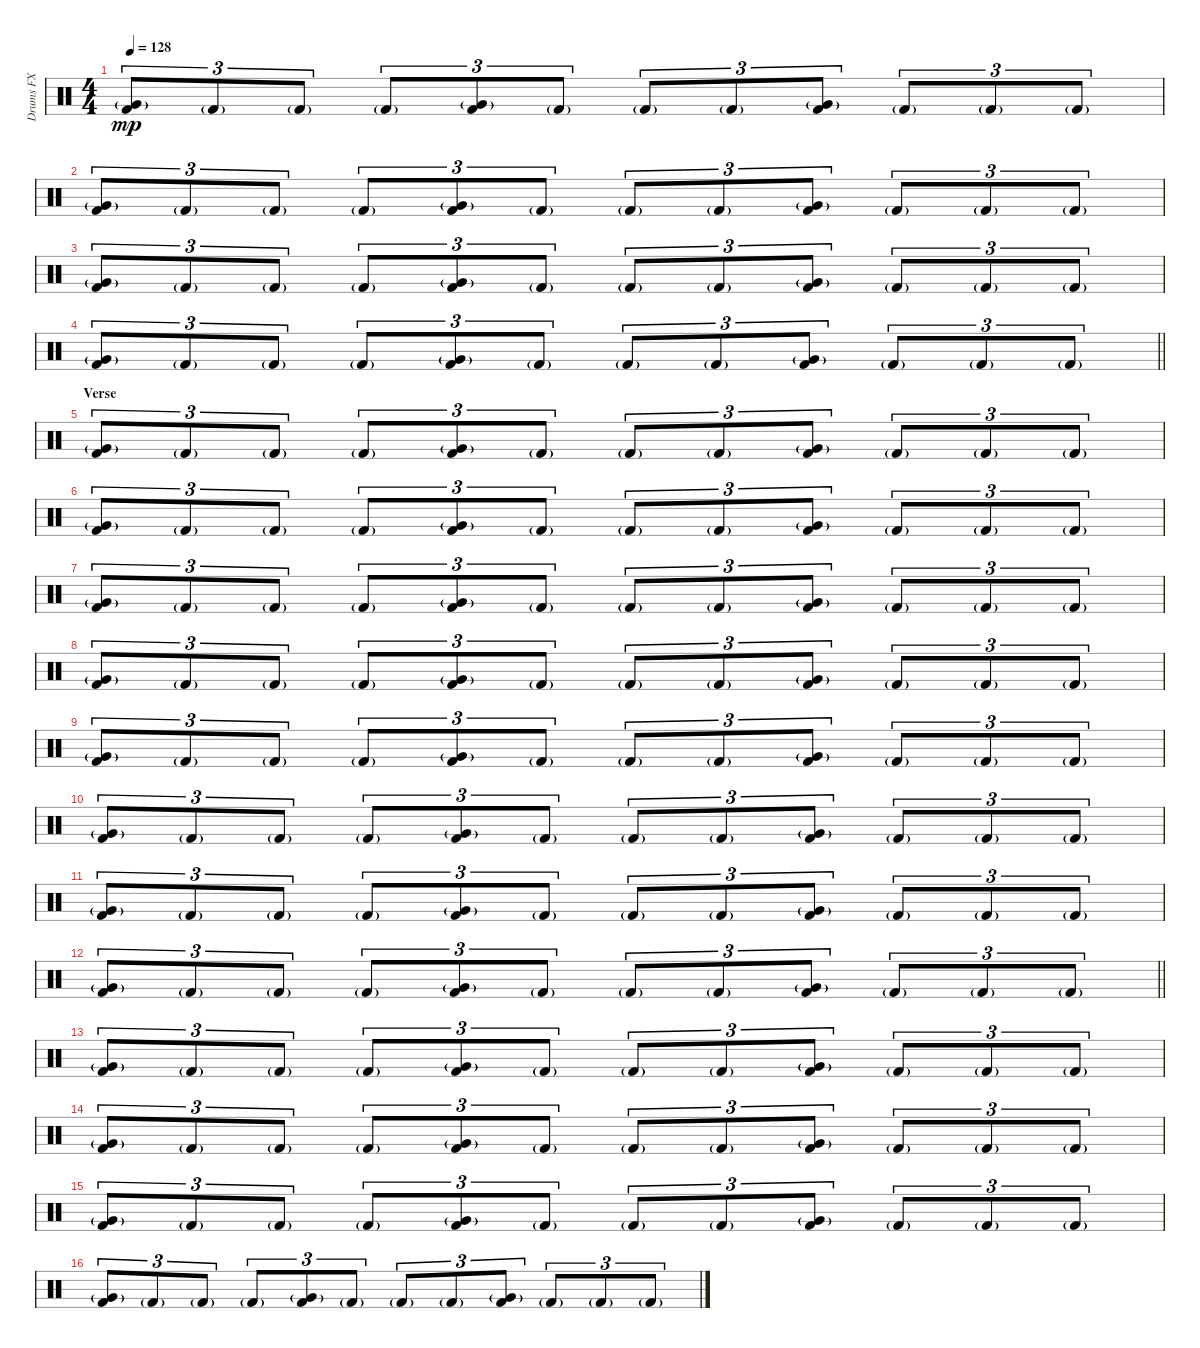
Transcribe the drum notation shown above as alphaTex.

\track ("Drums FX" "Drums FX") {instrument percussion}
\staff {score}
\articulation defaults
\ts (4 4)
\tempo 128
\clef neutral
\ks c
("Very Low Tom (hit)"{g} "Kick (hit) 2").8{tu (3 2) dy mp} "Kick (hit) 2"{g}.8{tu (3 2)} "Kick (hit) 2"{g}.8{tu (3 2)} "Kick (hit) 2"{g}.8{tu (3 2)} ("Very Low Tom (hit)"{g} "Kick (hit) 2").8{tu (3 2)} "Kick (hit) 2"{g}.8{tu (3 2)} "Kick (hit) 2"{g}.8{tu (3 2)} "Kick (hit) 2"{g}.8{tu (3 2)} ("Very Low Tom (hit)"{g} "Kick (hit) 2").8{tu (3 2)} "Kick (hit) 2"{g}.8{tu (3 2)} "Kick (hit) 2"{g}.8{tu (3 2)} "Kick (hit) 2"{g}.8{tu (3 2)} |
("Very Low Tom (hit)"{g} "Kick (hit) 2").8{tu (3 2)} "Kick (hit) 2"{g}.8{tu (3 2)} "Kick (hit) 2"{g}.8{tu (3 2)} "Kick (hit) 2"{g}.8{tu (3 2)} ("Very Low Tom (hit)"{g} "Kick (hit) 2").8{tu (3 2)} "Kick (hit) 2"{g}.8{tu (3 2)} "Kick (hit) 2"{g}.8{tu (3 2)} "Kick (hit) 2"{g}.8{tu (3 2)} ("Very Low Tom (hit)"{g} "Kick (hit) 2").8{tu (3 2)} "Kick (hit) 2"{g}.8{tu (3 2)} "Kick (hit) 2"{g}.8{tu (3 2)} "Kick (hit) 2"{g}.8{tu (3 2)} |
("Very Low Tom (hit)"{g} "Kick (hit) 2").8{tu (3 2)} "Kick (hit) 2"{g}.8{tu (3 2)} "Kick (hit) 2"{g}.8{tu (3 2)} "Kick (hit) 2"{g}.8{tu (3 2)} ("Very Low Tom (hit)"{g} "Kick (hit) 2").8{tu (3 2)} "Kick (hit) 2"{g}.8{tu (3 2)} "Kick (hit) 2"{g}.8{tu (3 2)} "Kick (hit) 2"{g}.8{tu (3 2)} ("Very Low Tom (hit)"{g} "Kick (hit) 2").8{tu (3 2)} "Kick (hit) 2"{g}.8{tu (3 2)} "Kick (hit) 2"{g}.8{tu (3 2)} "Kick (hit) 2"{g}.8{tu (3 2)} |
\barLineRight lightlight
("Very Low Tom (hit)"{g} "Kick (hit) 2").8{tu (3 2)} "Kick (hit) 2"{g}.8{tu (3 2)} "Kick (hit) 2"{g}.8{tu (3 2)} "Kick (hit) 2"{g}.8{tu (3 2)} ("Very Low Tom (hit)"{g} "Kick (hit) 2").8{tu (3 2)} "Kick (hit) 2"{g}.8{tu (3 2)} "Kick (hit) 2"{g}.8{tu (3 2)} "Kick (hit) 2"{g}.8{tu (3 2)} ("Very Low Tom (hit)"{g} "Kick (hit) 2").8{tu (3 2)} "Kick (hit) 2"{g}.8{tu (3 2)} "Kick (hit) 2"{g}.8{tu (3 2)} "Kick (hit) 2"{g}.8{tu (3 2)} |
\section ("" "Verse")
("Very Low Tom (hit)"{g} "Kick (hit) 2").8{tu (3 2)} "Kick (hit) 2"{g}.8{tu (3 2)} "Kick (hit) 2"{g}.8{tu (3 2)} "Kick (hit) 2"{g}.8{tu (3 2)} ("Very Low Tom (hit)"{g} "Kick (hit) 2").8{tu (3 2)} "Kick (hit) 2"{g}.8{tu (3 2)} "Kick (hit) 2"{g}.8{tu (3 2)} "Kick (hit) 2"{g}.8{tu (3 2)} ("Very Low Tom (hit)"{g} "Kick (hit) 2").8{tu (3 2)} "Kick (hit) 2"{g}.8{tu (3 2)} "Kick (hit) 2"{g}.8{tu (3 2)} "Kick (hit) 2"{g}.8{tu (3 2)} |
("Very Low Tom (hit)"{g} "Kick (hit) 2").8{tu (3 2)} "Kick (hit) 2"{g}.8{tu (3 2)} "Kick (hit) 2"{g}.8{tu (3 2)} "Kick (hit) 2"{g}.8{tu (3 2)} ("Very Low Tom (hit)"{g} "Kick (hit) 2").8{tu (3 2)} "Kick (hit) 2"{g}.8{tu (3 2)} "Kick (hit) 2"{g}.8{tu (3 2)} "Kick (hit) 2"{g}.8{tu (3 2)} ("Very Low Tom (hit)"{g} "Kick (hit) 2").8{tu (3 2)} "Kick (hit) 2"{g}.8{tu (3 2)} "Kick (hit) 2"{g}.8{tu (3 2)} "Kick (hit) 2"{g}.8{tu (3 2)} |
("Very Low Tom (hit)"{g} "Kick (hit) 2").8{tu (3 2)} "Kick (hit) 2"{g}.8{tu (3 2)} "Kick (hit) 2"{g}.8{tu (3 2)} "Kick (hit) 2"{g}.8{tu (3 2)} ("Very Low Tom (hit)"{g} "Kick (hit) 2").8{tu (3 2)} "Kick (hit) 2"{g}.8{tu (3 2)} "Kick (hit) 2"{g}.8{tu (3 2)} "Kick (hit) 2"{g}.8{tu (3 2)} ("Very Low Tom (hit)"{g} "Kick (hit) 2").8{tu (3 2)} "Kick (hit) 2"{g}.8{tu (3 2)} "Kick (hit) 2"{g}.8{tu (3 2)} "Kick (hit) 2"{g}.8{tu (3 2)} |
("Very Low Tom (hit)"{g} "Kick (hit) 2").8{tu (3 2)} "Kick (hit) 2"{g}.8{tu (3 2)} "Kick (hit) 2"{g}.8{tu (3 2)} "Kick (hit) 2"{g}.8{tu (3 2)} ("Very Low Tom (hit)"{g} "Kick (hit) 2").8{tu (3 2)} "Kick (hit) 2"{g}.8{tu (3 2)} "Kick (hit) 2"{g}.8{tu (3 2)} "Kick (hit) 2"{g}.8{tu (3 2)} ("Very Low Tom (hit)"{g} "Kick (hit) 2").8{tu (3 2)} "Kick (hit) 2"{g}.8{tu (3 2)} "Kick (hit) 2"{g}.8{tu (3 2)} "Kick (hit) 2"{g}.8{tu (3 2)} |
("Very Low Tom (hit)"{g} "Kick (hit) 2").8{tu (3 2)} "Kick (hit) 2"{g}.8{tu (3 2)} "Kick (hit) 2"{g}.8{tu (3 2)} "Kick (hit) 2"{g}.8{tu (3 2)} ("Very Low Tom (hit)"{g} "Kick (hit) 2").8{tu (3 2)} "Kick (hit) 2"{g}.8{tu (3 2)} "Kick (hit) 2"{g}.8{tu (3 2)} "Kick (hit) 2"{g}.8{tu (3 2)} ("Very Low Tom (hit)"{g} "Kick (hit) 2").8{tu (3 2)} "Kick (hit) 2"{g}.8{tu (3 2)} "Kick (hit) 2"{g}.8{tu (3 2)} "Kick (hit) 2"{g}.8{tu (3 2)} |
("Very Low Tom (hit)"{g} "Kick (hit) 2").8{tu (3 2)} "Kick (hit) 2"{g}.8{tu (3 2)} "Kick (hit) 2"{g}.8{tu (3 2)} "Kick (hit) 2"{g}.8{tu (3 2)} ("Very Low Tom (hit)"{g} "Kick (hit) 2").8{tu (3 2)} "Kick (hit) 2"{g}.8{tu (3 2)} "Kick (hit) 2"{g}.8{tu (3 2)} "Kick (hit) 2"{g}.8{tu (3 2)} ("Very Low Tom (hit)"{g} "Kick (hit) 2").8{tu (3 2)} "Kick (hit) 2"{g}.8{tu (3 2)} "Kick (hit) 2"{g}.8{tu (3 2)} "Kick (hit) 2"{g}.8{tu (3 2)} |
("Very Low Tom (hit)"{g} "Kick (hit) 2").8{tu (3 2)} "Kick (hit) 2"{g}.8{tu (3 2)} "Kick (hit) 2"{g}.8{tu (3 2)} "Kick (hit) 2"{g}.8{tu (3 2)} ("Very Low Tom (hit)"{g} "Kick (hit) 2").8{tu (3 2)} "Kick (hit) 2"{g}.8{tu (3 2)} "Kick (hit) 2"{g}.8{tu (3 2)} "Kick (hit) 2"{g}.8{tu (3 2)} ("Very Low Tom (hit)"{g} "Kick (hit) 2").8{tu (3 2)} "Kick (hit) 2"{g}.8{tu (3 2)} "Kick (hit) 2"{g}.8{tu (3 2)} "Kick (hit) 2"{g}.8{tu (3 2)} |
\barLineRight lightlight
("Very Low Tom (hit)"{g} "Kick (hit) 2").8{tu (3 2)} "Kick (hit) 2"{g}.8{tu (3 2)} "Kick (hit) 2"{g}.8{tu (3 2)} "Kick (hit) 2"{g}.8{tu (3 2)} ("Very Low Tom (hit)"{g} "Kick (hit) 2").8{tu (3 2)} "Kick (hit) 2"{g}.8{tu (3 2)} "Kick (hit) 2"{g}.8{tu (3 2)} "Kick (hit) 2"{g}.8{tu (3 2)} ("Very Low Tom (hit)"{g} "Kick (hit) 2").8{tu (3 2)} "Kick (hit) 2"{g}.8{tu (3 2)} "Kick (hit) 2"{g}.8{tu (3 2)} "Kick (hit) 2"{g}.8{tu (3 2)} |
\section ("" "")
("Very Low Tom (hit)"{g} "Kick (hit) 2").8{tu (3 2)} "Kick (hit) 2"{g}.8{tu (3 2)} "Kick (hit) 2"{g}.8{tu (3 2)} "Kick (hit) 2"{g}.8{tu (3 2)} ("Very Low Tom (hit)"{g} "Kick (hit) 2").8{tu (3 2)} "Kick (hit) 2"{g}.8{tu (3 2)} "Kick (hit) 2"{g}.8{tu (3 2)} "Kick (hit) 2"{g}.8{tu (3 2)} ("Very Low Tom (hit)"{g} "Kick (hit) 2").8{tu (3 2)} "Kick (hit) 2"{g}.8{tu (3 2)} "Kick (hit) 2"{g}.8{tu (3 2)} "Kick (hit) 2"{g}.8{tu (3 2)} |
("Very Low Tom (hit)"{g} "Kick (hit) 2").8{tu (3 2)} "Kick (hit) 2"{g}.8{tu (3 2)} "Kick (hit) 2"{g}.8{tu (3 2)} "Kick (hit) 2"{g}.8{tu (3 2)} ("Very Low Tom (hit)"{g} "Kick (hit) 2").8{tu (3 2)} "Kick (hit) 2"{g}.8{tu (3 2)} "Kick (hit) 2"{g}.8{tu (3 2)} "Kick (hit) 2"{g}.8{tu (3 2)} ("Very Low Tom (hit)"{g} "Kick (hit) 2").8{tu (3 2)} "Kick (hit) 2"{g}.8{tu (3 2)} "Kick (hit) 2"{g}.8{tu (3 2)} "Kick (hit) 2"{g}.8{tu (3 2)} |
("Very Low Tom (hit)"{g} "Kick (hit) 2").8{tu (3 2)} "Kick (hit) 2"{g}.8{tu (3 2)} "Kick (hit) 2"{g}.8{tu (3 2)} "Kick (hit) 2"{g}.8{tu (3 2)} ("Very Low Tom (hit)"{g} "Kick (hit) 2").8{tu (3 2)} "Kick (hit) 2"{g}.8{tu (3 2)} "Kick (hit) 2"{g}.8{tu (3 2)} "Kick (hit) 2"{g}.8{tu (3 2)} ("Very Low Tom (hit)"{g} "Kick (hit) 2").8{tu (3 2)} "Kick (hit) 2"{g}.8{tu (3 2)} "Kick (hit) 2"{g}.8{tu (3 2)} "Kick (hit) 2"{g}.8{tu (3 2)} |
("Very Low Tom (hit)"{g} "Kick (hit) 2").8{tu (3 2)} "Kick (hit) 2"{g}.8{tu (3 2)} "Kick (hit) 2"{g}.8{tu (3 2)} "Kick (hit) 2"{g}.8{tu (3 2)} ("Very Low Tom (hit)"{g} "Kick (hit) 2").8{tu (3 2)} "Kick (hit) 2"{g}.8{tu (3 2)} "Kick (hit) 2"{g}.8{tu (3 2)} "Kick (hit) 2"{g}.8{tu (3 2)} ("Very Low Tom (hit)"{g} "Kick (hit) 2").8{tu (3 2)} "Kick (hit) 2"{g}.8{tu (3 2)} "Kick (hit) 2"{g}.8{tu (3 2)} "Kick (hit) 2"{g}.8{tu (3 2)}
